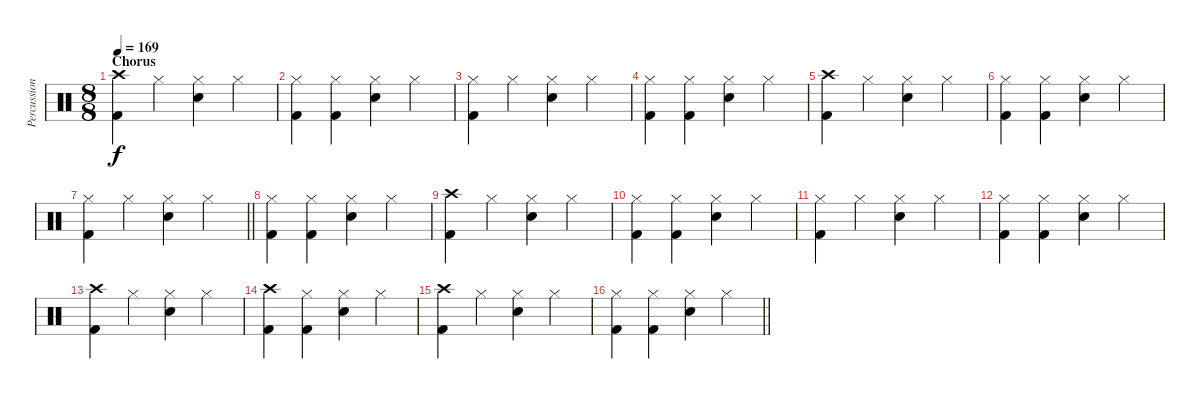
\track ("Percussion" "Percussion") {instrument percussion}
\staff {score}
\articulation defaults
\ts (8 8)
\section ("" "Chorus")
\tempo 169
\clef neutral
\ks c
("Crash high (hit)" "Kick (hit) 2").4{dy f} "Hi-Hat (closed)".4 ("Hi-Hat (closed)" "Snare (hit) 2").4 "Hi-Hat (closed)".4 |
("Hi-Hat (closed)" "Kick (hit) 2").4 ("Hi-Hat (closed)" "Kick (hit) 2").4 ("Hi-Hat (closed)" "Snare (hit) 2").4 "Hi-Hat (closed)".4 |
("Hi-Hat (closed)" "Kick (hit) 2").4 "Hi-Hat (closed)".4 ("Hi-Hat (closed)" "Snare (hit) 2").4 "Hi-Hat (closed)".4 |
("Hi-Hat (closed)" "Kick (hit) 2").4 ("Hi-Hat (closed)" "Kick (hit) 2").4 ("Hi-Hat (closed)" "Snare (hit) 2").4 "Hi-Hat (closed)".4 |
("Crash high (hit)" "Kick (hit) 2").4 "Hi-Hat (closed)".4 ("Hi-Hat (closed)" "Snare (hit) 2").4 "Hi-Hat (closed)".4 |
("Hi-Hat (closed)" "Kick (hit) 2").4 ("Hi-Hat (closed)" "Kick (hit) 2").4 ("Hi-Hat (closed)" "Snare (hit) 2").4 "Hi-Hat (closed)".4 |
\barLineRight lightlight
("Hi-Hat (closed)" "Kick (hit) 2").4 "Hi-Hat (closed)".4 ("Hi-Hat (closed)" "Snare (hit) 2").4 "Hi-Hat (closed)".4 |
("Hi-Hat (closed)" "Kick (hit) 2").4 ("Hi-Hat (closed)" "Kick (hit) 2").4 ("Hi-Hat (closed)" "Snare (hit) 2").4 "Hi-Hat (closed)".4 |
("Crash high (hit)" "Kick (hit) 2").4 "Hi-Hat (closed)".4 ("Hi-Hat (closed)" "Snare (hit) 2").4 "Hi-Hat (closed)".4 |
("Hi-Hat (closed)" "Kick (hit) 2").4 ("Hi-Hat (closed)" "Kick (hit) 2").4 ("Hi-Hat (closed)" "Snare (hit) 2").4 "Hi-Hat (closed)".4 |
("Hi-Hat (closed)" "Kick (hit) 2").4 "Hi-Hat (closed)".4 ("Hi-Hat (closed)" "Snare (hit) 2").4 "Hi-Hat (closed)".4 |
("Hi-Hat (closed)" "Kick (hit) 2").4 ("Hi-Hat (closed)" "Kick (hit) 2").4 ("Hi-Hat (closed)" "Snare (hit) 2").4 "Hi-Hat (closed)".4 |
("Crash high (hit)" "Kick (hit) 2").4 "Hi-Hat (closed)".4 ("Hi-Hat (closed)" "Snare (hit) 2").4 "Hi-Hat (closed)".4 |
("Crash high (hit)" "Kick (hit) 2").4 ("Hi-Hat (closed)" "Kick (hit) 2").4 ("Hi-Hat (closed)" "Snare (hit) 2").4 "Hi-Hat (closed)".4 |
("Crash high (hit)" "Kick (hit) 2").4 "Hi-Hat (closed)".4 ("Hi-Hat (closed)" "Snare (hit) 2").4 "Hi-Hat (closed)".4 |
\barLineRight lightlight
("Hi-Hat (closed)" "Kick (hit) 2").4 ("Hi-Hat (closed)" "Kick (hit) 2").4 ("Hi-Hat (closed)" "Snare (hit) 2").4 "Hi-Hat (closed)".4
